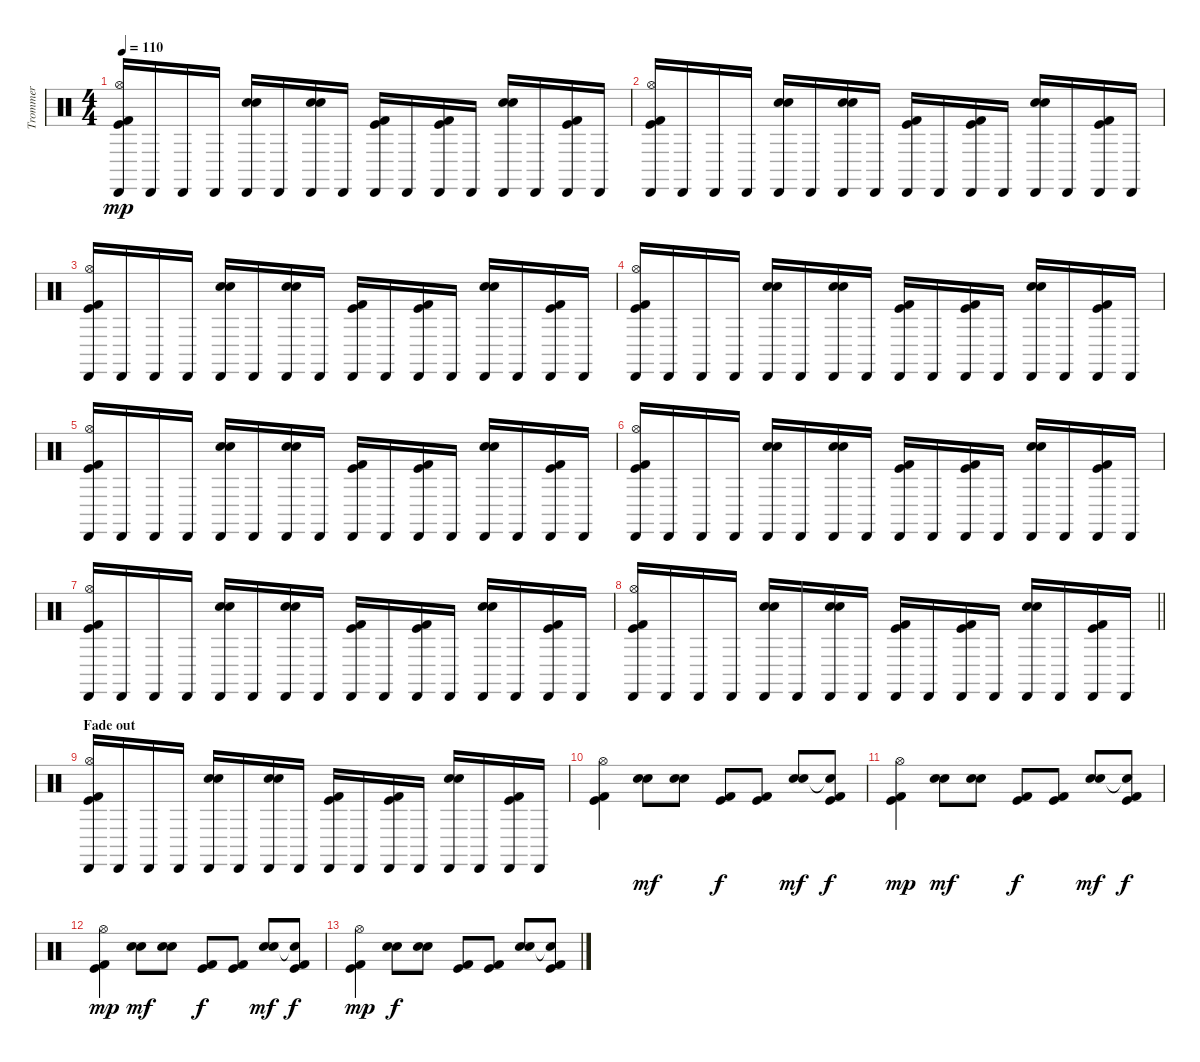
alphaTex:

\track ("Trommer" "Trommer") {instrument percussion}
\staff {score}
\articulation defaults
\ts (4 4)
\tempo 110
\clef neutral
\ks c
("Cabasa (hit)" "Hi-Hat (open)" "Kick (hit)" "Kick (hit) 2").16{dy mp} "Cabasa (hit)".16 "Cabasa (hit)".16 "Cabasa (hit)".16 ("Cabasa (hit)" "Snare (hit) 2" "Electric Snare (hit)").16 "Cabasa (hit)".16 ("Cabasa (hit)" "Snare (hit) 2" "Electric Snare (hit)").16 "Cabasa (hit)".16 ("Cabasa (hit)" "Kick (hit)" "Kick (hit) 2").16 "Cabasa (hit)".16 ("Cabasa (hit)" "Kick (hit) 2" "Kick (hit)").16 "Cabasa (hit)".16 ("Cabasa (hit)" "Snare (hit) 2" "Electric Snare (hit)").16 "Cabasa (hit)".16 ("Cabasa (hit)" "Kick (hit) 2" "Kick (hit)").16 "Cabasa (hit)".16 |
("Cabasa (hit)" "Hi-Hat (open)" "Kick (hit)" "Kick (hit) 2").16 "Cabasa (hit)".16 "Cabasa (hit)".16 "Cabasa (hit)".16 ("Cabasa (hit)" "Snare (hit) 2" "Electric Snare (hit)").16 "Cabasa (hit)".16 ("Cabasa (hit)" "Snare (hit) 2" "Electric Snare (hit)").16 "Cabasa (hit)".16 ("Cabasa (hit)" "Kick (hit)" "Kick (hit) 2").16 "Cabasa (hit)".16 ("Cabasa (hit)" "Kick (hit) 2" "Kick (hit)").16 "Cabasa (hit)".16 ("Cabasa (hit)" "Snare (hit) 2" "Electric Snare (hit)").16 "Cabasa (hit)".16 ("Cabasa (hit)" "Kick (hit) 2" "Kick (hit)").16 "Cabasa (hit)".16 |
("Cabasa (hit)" "Hi-Hat (open)" "Kick (hit)" "Kick (hit) 2").16 "Cabasa (hit)".16 "Cabasa (hit)".16 "Cabasa (hit)".16 ("Cabasa (hit)" "Snare (hit) 2" "Electric Snare (hit)").16 "Cabasa (hit)".16 ("Cabasa (hit)" "Snare (hit) 2" "Electric Snare (hit)").16 "Cabasa (hit)".16 ("Cabasa (hit)" "Kick (hit)" "Kick (hit) 2").16 "Cabasa (hit)".16 ("Cabasa (hit)" "Kick (hit) 2" "Kick (hit)").16 "Cabasa (hit)".16 ("Cabasa (hit)" "Snare (hit) 2" "Electric Snare (hit)").16 "Cabasa (hit)".16 ("Cabasa (hit)" "Kick (hit) 2" "Kick (hit)").16 "Cabasa (hit)".16 |
("Cabasa (hit)" "Hi-Hat (open)" "Kick (hit)" "Kick (hit) 2").16 "Cabasa (hit)".16 "Cabasa (hit)".16 "Cabasa (hit)".16 ("Cabasa (hit)" "Snare (hit) 2" "Electric Snare (hit)").16 "Cabasa (hit)".16 ("Cabasa (hit)" "Snare (hit) 2" "Electric Snare (hit)").16 "Cabasa (hit)".16 ("Cabasa (hit)" "Kick (hit)" "Kick (hit) 2").16 "Cabasa (hit)".16 ("Cabasa (hit)" "Kick (hit) 2" "Kick (hit)").16 "Cabasa (hit)".16 ("Cabasa (hit)" "Snare (hit) 2" "Electric Snare (hit)").16 "Cabasa (hit)".16 ("Cabasa (hit)" "Kick (hit) 2" "Kick (hit)").16 "Cabasa (hit)".16 |
("Cabasa (hit)" "Hi-Hat (open)" "Kick (hit)" "Kick (hit) 2").16 "Cabasa (hit)".16 "Cabasa (hit)".16 "Cabasa (hit)".16 ("Cabasa (hit)" "Snare (hit) 2" "Electric Snare (hit)").16 "Cabasa (hit)".16 ("Cabasa (hit)" "Snare (hit) 2" "Electric Snare (hit)").16 "Cabasa (hit)".16 ("Cabasa (hit)" "Kick (hit)" "Kick (hit) 2").16 "Cabasa (hit)".16 ("Cabasa (hit)" "Kick (hit) 2" "Kick (hit)").16 "Cabasa (hit)".16 ("Cabasa (hit)" "Snare (hit) 2" "Electric Snare (hit)").16 "Cabasa (hit)".16 ("Cabasa (hit)" "Kick (hit) 2" "Kick (hit)").16 "Cabasa (hit)".16 |
("Cabasa (hit)" "Hi-Hat (open)" "Kick (hit)" "Kick (hit) 2").16 "Cabasa (hit)".16 "Cabasa (hit)".16 "Cabasa (hit)".16 ("Cabasa (hit)" "Snare (hit) 2" "Electric Snare (hit)").16 "Cabasa (hit)".16 ("Cabasa (hit)" "Snare (hit) 2" "Electric Snare (hit)").16 "Cabasa (hit)".16 ("Cabasa (hit)" "Kick (hit)" "Kick (hit) 2").16 "Cabasa (hit)".16 ("Cabasa (hit)" "Kick (hit) 2" "Kick (hit)").16 "Cabasa (hit)".16 ("Cabasa (hit)" "Snare (hit) 2" "Electric Snare (hit)").16 "Cabasa (hit)".16 ("Cabasa (hit)" "Kick (hit) 2" "Kick (hit)").16 "Cabasa (hit)".16 |
("Cabasa (hit)" "Hi-Hat (open)" "Kick (hit)" "Kick (hit) 2").16 "Cabasa (hit)".16 "Cabasa (hit)".16 "Cabasa (hit)".16 ("Cabasa (hit)" "Snare (hit) 2" "Electric Snare (hit)").16 "Cabasa (hit)".16 ("Cabasa (hit)" "Snare (hit) 2" "Electric Snare (hit)").16 "Cabasa (hit)".16 ("Cabasa (hit)" "Kick (hit)" "Kick (hit) 2").16 "Cabasa (hit)".16 ("Cabasa (hit)" "Kick (hit) 2" "Kick (hit)").16 "Cabasa (hit)".16 ("Cabasa (hit)" "Snare (hit) 2" "Electric Snare (hit)").16 "Cabasa (hit)".16 ("Cabasa (hit)" "Kick (hit) 2" "Kick (hit)").16 "Cabasa (hit)".16 |
\barLineRight lightlight
("Cabasa (hit)" "Hi-Hat (open)" "Kick (hit)" "Kick (hit) 2").16 "Cabasa (hit)".16 "Cabasa (hit)".16 "Cabasa (hit)".16 ("Cabasa (hit)" "Snare (hit) 2" "Electric Snare (hit)").16 "Cabasa (hit)".16 ("Cabasa (hit)" "Snare (hit) 2" "Electric Snare (hit)").16 "Cabasa (hit)".16 ("Cabasa (hit)" "Kick (hit)" "Kick (hit) 2").16 "Cabasa (hit)".16 ("Cabasa (hit)" "Kick (hit) 2" "Kick (hit)").16 "Cabasa (hit)".16 ("Cabasa (hit)" "Snare (hit) 2" "Electric Snare (hit)").16 "Cabasa (hit)".16 ("Cabasa (hit)" "Kick (hit) 2" "Kick (hit)").16 "Cabasa (hit)".16 |
\section ("" "Fade out")
("Cabasa (hit)" "Hi-Hat (open)" "Kick (hit)" "Kick (hit) 2").16{volume 7} "Cabasa (hit)".16 "Cabasa (hit)".16 "Cabasa (hit)".16 ("Cabasa (hit)" "Snare (hit) 2" "Electric Snare (hit)").16 "Cabasa (hit)".16 ("Cabasa (hit)" "Snare (hit) 2" "Electric Snare (hit)").16 "Cabasa (hit)".16 ("Cabasa (hit)" "Kick (hit)" "Kick (hit) 2").16 "Cabasa (hit)".16 ("Cabasa (hit)" "Kick (hit) 2" "Kick (hit)").16 "Cabasa (hit)".16 ("Cabasa (hit)" "Snare (hit) 2" "Electric Snare (hit)").16 "Cabasa (hit)".16 ("Cabasa (hit)" "Kick (hit) 2" "Kick (hit)").16 "Cabasa (hit)".16 |
("Hi-Hat (open)" "Kick (hit)" "Kick (hit) 2").4 ("Electric Snare (hit)" "Snare (hit) 2").8{dy mf} ("Snare (hit) 2" "Electric Snare (hit)").8 ("Kick (hit) 2" "Kick (hit)").8{dy f volume 6} ("Kick (hit)" "Kick (hit) 2").8 ("Snare (hit) 2" "Electric Snare (hit)").8{dy mf} ("Snare (hit)"{t} "Kick (hit)" "Kick (hit) 2").8{dy f} |
("Hi-Hat (open)" "Kick (hit)" "Kick (hit) 2").4{dy mp} ("Electric Snare (hit)" "Snare (hit) 2").8{dy mf} ("Snare (hit) 2" "Electric Snare (hit)").8 ("Kick (hit) 2" "Kick (hit)").8{dy f} ("Kick (hit)" "Kick (hit) 2").8{volume 4} ("Snare (hit) 2" "Electric Snare (hit)").8{dy mf} ("Snare (hit)"{t} "Kick (hit)" "Kick (hit) 2").8{dy f} |
("Hi-Hat (open)" "Kick (hit)" "Kick (hit) 2").4{dy mp} ("Electric Snare (hit)" "Snare (hit) 2").8{dy mf volume 2} ("Snare (hit) 2" "Electric Snare (hit)").8 ("Kick (hit) 2" "Kick (hit)").8{dy f} ("Kick (hit)" "Kick (hit) 2").8 ("Snare (hit) 2" "Electric Snare (hit)").8{dy mf} ("Snare (hit)"{t} "Kick (hit)" "Kick (hit) 2").8{dy f} |
("Hi-Hat (open)" "Kick (hit)" "Kick (hit) 2").4{dy mp volume 0} ("Electric Snare (hit)" "Snare (hit) 2").8{dy f} ("Snare (hit) 2" "Electric Snare (hit)").8 ("Kick (hit) 2" "Kick (hit)").8 ("Kick (hit)" "Kick (hit) 2").8 ("Snare (hit) 2" "Electric Snare (hit)").8 ("Snare (hit)"{t} "Kick (hit)" "Kick (hit) 2").8
